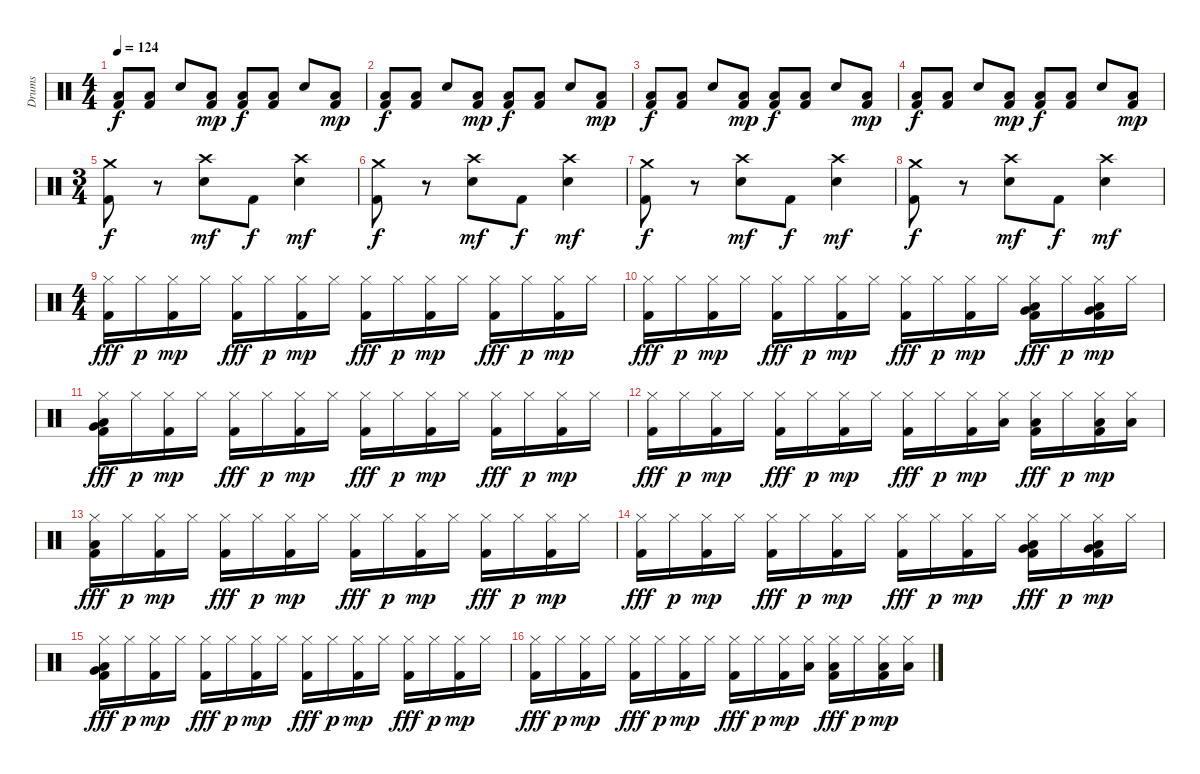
\track ("Drums" "Drums") {instrument percussion}
\staff {score}
\articulation defaults
\ts (4 4)
\tempo 124
\clef neutral
\ks c
("Low Tom (hit)" "Kick (hit) 2").8{dy f} ("Low Tom (hit)" "Kick (hit) 2").8 "Snare (hit) 2".8 ("Low Tom (hit)" "Kick (hit) 2").8{dy mp} ("Low Tom (hit)" "Kick (hit) 2").8{dy f} ("Low Tom (hit)" "Kick (hit) 2").8 "Snare (hit) 2".8 ("Low Tom (hit)" "Kick (hit) 2").8{dy mp} |
("Low Tom (hit)" "Kick (hit) 2").8{dy f} ("Low Tom (hit)" "Kick (hit) 2").8 "Snare (hit) 2".8 ("Low Tom (hit)" "Kick (hit) 2").8{dy mp} ("Low Tom (hit)" "Kick (hit) 2").8{dy f} ("Low Tom (hit)" "Kick (hit) 2").8 "Snare (hit) 2".8 ("Low Tom (hit)" "Kick (hit) 2").8{dy mp} |
("Low Tom (hit)" "Kick (hit) 2").8{dy f} ("Low Tom (hit)" "Kick (hit) 2").8 "Snare (hit) 2".8 ("Low Tom (hit)" "Kick (hit) 2").8{dy mp} ("Low Tom (hit)" "Kick (hit) 2").8{dy f} ("Low Tom (hit)" "Kick (hit) 2").8 "Snare (hit) 2".8 ("Low Tom (hit)" "Kick (hit) 2").8{dy mp} |
("Low Tom (hit)" "Kick (hit) 2").8{dy f} ("Low Tom (hit)" "Kick (hit) 2").8 "Snare (hit) 2".8 ("Low Tom (hit)" "Kick (hit) 2").8{dy mp} ("Low Tom (hit)" "Kick (hit) 2").8{dy f} ("Low Tom (hit)" "Kick (hit) 2").8 "Snare (hit) 2".8 ("Low Tom (hit)" "Kick (hit) 2").8{dy mp} |
\ts (3 4)
("Crash medium (hit)" "Kick (hit) 2").8{dy f} r.8 ("Crash high (hit)" "Snare (hit) 2").8{dy mf} "Kick (hit) 2".8{dy f} ("Crash high (hit)" "Snare (hit) 2").4{dy mf} |
("Crash medium (hit)" "Kick (hit) 2").8{dy f} r.8 ("Crash high (hit)" "Snare (hit) 2").8{dy mf} "Kick (hit) 2".8{dy f} ("Crash high (hit)" "Snare (hit) 2").4{dy mf} |
("Crash medium (hit)" "Kick (hit) 2").8{dy f} r.8 ("Crash high (hit)" "Snare (hit) 2").8{dy mf} "Kick (hit) 2".8{dy f} ("Crash high (hit)" "Snare (hit) 2").4{dy mf} |
("Crash medium (hit)" "Kick (hit) 2").8{dy f} r.8 ("Crash high (hit)" "Snare (hit) 2").8{dy mf} "Kick (hit) 2".8{dy f} ("Crash high (hit)" "Snare (hit) 2").4{dy mf} |
\ts (4 4)
("Hi-Hat (closed)" "Kick (hit) 2").16{dy fff volume 11} "Hi-Hat (closed)".16{dy p} ("Hi-Hat (closed)" "Kick (hit) 2").16{dy mp} "Hi-Hat (closed)".16 ("Hi-Hat (closed)" "Kick (hit) 2").16{dy fff} "Hi-Hat (closed)".16{dy p} ("Hi-Hat (closed)" "Kick (hit) 2").16{dy mp} "Hi-Hat (closed)".16 ("Hi-Hat (closed)" "Kick (hit) 2").16{dy fff} "Hi-Hat (closed)".16{dy p} ("Hi-Hat (closed)" "Kick (hit) 2").16{dy mp} "Hi-Hat (closed)".16 ("Hi-Hat (closed)" "Kick (hit) 2").16{dy fff} "Hi-Hat (closed)".16{dy p} ("Hi-Hat (closed)" "Kick (hit) 2").16{dy mp} "Hi-Hat (closed)".16 |
("Hi-Hat (closed)" "Kick (hit) 2").16{dy fff volume 11} "Hi-Hat (closed)".16{dy p} ("Hi-Hat (closed)" "Kick (hit) 2").16{dy mp} "Hi-Hat (closed)".16 ("Hi-Hat (closed)" "Kick (hit) 2").16{dy fff} "Hi-Hat (closed)".16{dy p} ("Hi-Hat (closed)" "Kick (hit) 2").16{dy mp} "Hi-Hat (closed)".16 ("Hi-Hat (closed)" "Kick (hit) 2").16{dy fff} "Hi-Hat (closed)".16{dy p} ("Hi-Hat (closed)" "Kick (hit) 2").16{dy mp} "Hi-Hat (closed)".16 ("Hi-Hat (closed)" "Very Low Tom (hit)" "Low Tom (hit)" "Kick (hit) 2").16{dy fff} "Hi-Hat (closed)".16{dy p} ("Hi-Hat (closed)" "Very Low Tom (hit)" "Low Tom (hit)" "Kick (hit) 2").16{dy mp} "Hi-Hat (closed)".16 |
("Hi-Hat (closed)" "Very Low Tom (hit)" "Low Tom (hit)" "Kick (hit) 2").16{dy fff volume 11} "Hi-Hat (closed)".16{dy p} ("Hi-Hat (closed)" "Kick (hit) 2").16{dy mp} "Hi-Hat (closed)".16 ("Hi-Hat (closed)" "Kick (hit) 2").16{dy fff} "Hi-Hat (closed)".16{dy p} ("Hi-Hat (closed)" "Kick (hit) 2").16{dy mp} "Hi-Hat (closed)".16 ("Hi-Hat (closed)" "Kick (hit) 2").16{dy fff} "Hi-Hat (closed)".16{dy p} ("Hi-Hat (closed)" "Kick (hit) 2").16{dy mp} "Hi-Hat (closed)".16 ("Hi-Hat (closed)" "Kick (hit) 2").16{dy fff} "Hi-Hat (closed)".16{dy p} ("Hi-Hat (closed)" "Kick (hit) 2").16{dy mp} "Hi-Hat (closed)".16 |
("Hi-Hat (closed)" "Kick (hit) 2").16{dy fff volume 11} "Hi-Hat (closed)".16{dy p} ("Hi-Hat (closed)" "Kick (hit) 2").16{dy mp} "Hi-Hat (closed)".16 ("Hi-Hat (closed)" "Kick (hit) 2").16{dy fff} "Hi-Hat (closed)".16{dy p} ("Hi-Hat (closed)" "Kick (hit) 2").16{dy mp} "Hi-Hat (closed)".16 ("Hi-Hat (closed)" "Kick (hit) 2").16{dy fff} "Hi-Hat (closed)".16{dy p} ("Hi-Hat (closed)" "Kick (hit) 2").16{dy mp} ("Hi-Hat (closed)" "Low Tom (hit)").16 ("Hi-Hat (closed)" "Low Tom (hit)" "Kick (hit) 2").16{dy fff} "Hi-Hat (closed)".16{dy p} ("Hi-Hat (closed)" "Low Tom (hit)" "Kick (hit) 2").16{dy mp} ("Hi-Hat (closed)" "Low Tom (hit)").16 |
("Hi-Hat (closed)" "Low Tom (hit)" "Kick (hit) 2").16{dy fff volume 11} "Hi-Hat (closed)".16{dy p} ("Hi-Hat (closed)" "Kick (hit) 2").16{dy mp} "Hi-Hat (closed)".16 ("Hi-Hat (closed)" "Kick (hit) 2").16{dy fff} "Hi-Hat (closed)".16{dy p} ("Hi-Hat (closed)" "Kick (hit) 2").16{dy mp} "Hi-Hat (closed)".16 ("Hi-Hat (closed)" "Kick (hit) 2").16{dy fff} "Hi-Hat (closed)".16{dy p} ("Hi-Hat (closed)" "Kick (hit) 2").16{dy mp} "Hi-Hat (closed)".16 ("Hi-Hat (closed)" "Kick (hit) 2").16{dy fff} "Hi-Hat (closed)".16{dy p} ("Hi-Hat (closed)" "Kick (hit) 2").16{dy mp} "Hi-Hat (closed)".16 |
("Hi-Hat (closed)" "Kick (hit) 2").16{dy fff volume 11} "Hi-Hat (closed)".16{dy p} ("Hi-Hat (closed)" "Kick (hit) 2").16{dy mp} "Hi-Hat (closed)".16 ("Hi-Hat (closed)" "Kick (hit) 2").16{dy fff} "Hi-Hat (closed)".16{dy p} ("Hi-Hat (closed)" "Kick (hit) 2").16{dy mp} "Hi-Hat (closed)".16 ("Hi-Hat (closed)" "Kick (hit) 2").16{dy fff} "Hi-Hat (closed)".16{dy p} ("Hi-Hat (closed)" "Kick (hit) 2").16{dy mp} "Hi-Hat (closed)".16 ("Hi-Hat (closed)" "Very Low Tom (hit)" "Low Tom (hit)" "Kick (hit) 2").16{dy fff} "Hi-Hat (closed)".16{dy p} ("Hi-Hat (closed)" "Very Low Tom (hit)" "Low Tom (hit)" "Kick (hit) 2").16{dy mp} "Hi-Hat (closed)".16 |
("Hi-Hat (closed)" "Very Low Tom (hit)" "Low Tom (hit)" "Kick (hit) 2").16{dy fff volume 11} "Hi-Hat (closed)".16{dy p} ("Hi-Hat (closed)" "Kick (hit) 2").16{dy mp} "Hi-Hat (closed)".16 ("Hi-Hat (closed)" "Kick (hit) 2").16{dy fff} "Hi-Hat (closed)".16{dy p} ("Hi-Hat (closed)" "Kick (hit) 2").16{dy mp} "Hi-Hat (closed)".16 ("Hi-Hat (closed)" "Kick (hit) 2").16{dy fff} "Hi-Hat (closed)".16{dy p} ("Hi-Hat (closed)" "Kick (hit) 2").16{dy mp} "Hi-Hat (closed)".16 ("Hi-Hat (closed)" "Kick (hit) 2").16{dy fff} "Hi-Hat (closed)".16{dy p} ("Hi-Hat (closed)" "Kick (hit) 2").16{dy mp} "Hi-Hat (closed)".16 |
("Hi-Hat (closed)" "Kick (hit) 2").16{dy fff volume 11} "Hi-Hat (closed)".16{dy p} ("Hi-Hat (closed)" "Kick (hit) 2").16{dy mp} "Hi-Hat (closed)".16 ("Hi-Hat (closed)" "Kick (hit) 2").16{dy fff} "Hi-Hat (closed)".16{dy p} ("Hi-Hat (closed)" "Kick (hit) 2").16{dy mp} "Hi-Hat (closed)".16 ("Hi-Hat (closed)" "Kick (hit) 2").16{dy fff} "Hi-Hat (closed)".16{dy p} ("Hi-Hat (closed)" "Kick (hit) 2").16{dy mp} ("Hi-Hat (closed)" "Low Tom (hit)").16 ("Hi-Hat (closed)" "Low Tom (hit)" "Kick (hit) 2").16{dy fff} "Hi-Hat (closed)".16{dy p} ("Hi-Hat (closed)" "Low Tom (hit)" "Kick (hit) 2").16{dy mp} ("Hi-Hat (closed)" "Low Tom (hit)").16
